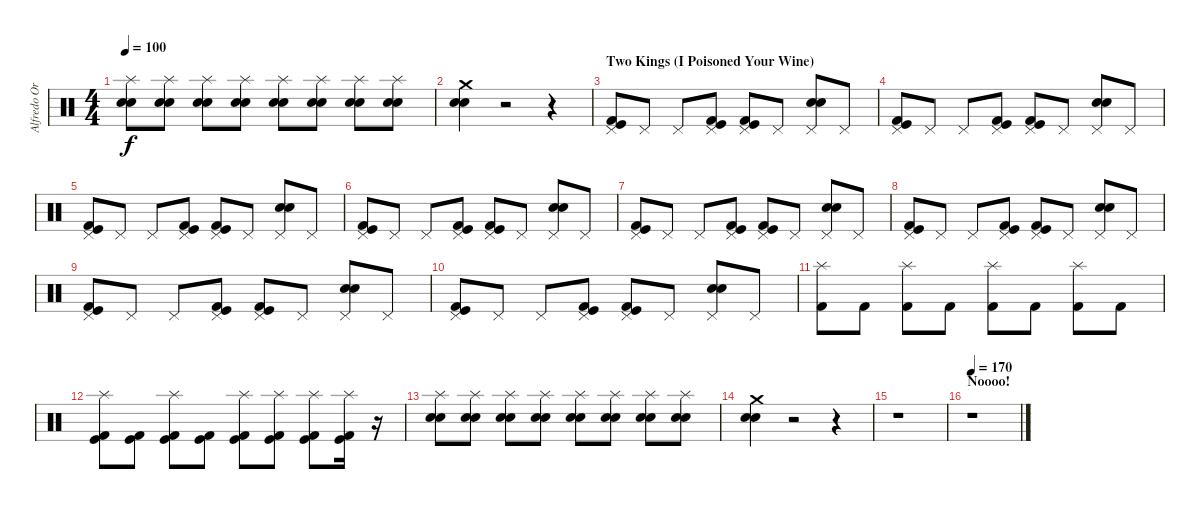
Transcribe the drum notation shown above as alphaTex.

\track ("Alfredo Ortiz (Drums)" "Alfredo Or") {instrument percussion}
\staff {score}
\articulation defaults
\ts (4 4)
\tempo 100
\clef neutral
\ks c
("Snare (hit) 2" "Electric Snare (hit)" "Splash (hit)").8{dy f volume 11} ("Snare (hit) 2" "Electric Snare (hit)" "Splash (hit)").8 ("Snare (hit) 2" "Electric Snare (hit)" "Splash (hit)").8 ("Snare (hit) 2" "Electric Snare (hit)" "Splash (hit)").8 ("Snare (hit) 2" "Electric Snare (hit)" "Splash (hit)").8 ("Snare (hit) 2" "Electric Snare (hit)" "Splash (hit)").8 ("Snare (hit) 2" "Electric Snare (hit)" "Splash (hit)").8 ("Snare (hit) 2" "Electric Snare (hit)" "Splash (hit)").8 |
("Snare (hit) 2" "Electric Snare (hit)" "Crash medium (hit)").4 r.2 r.4 |
\section ("" "Two Kings (I Poisoned Your Wine)")
("Kick (hit) 2" "Kick (hit)" "Pedal Hi-Hat (hit)").8 "Pedal Hi-Hat (hit)".8 "Pedal Hi-Hat (hit)".8 ("Kick (hit) 2" "Kick (hit)" "Pedal Hi-Hat (hit)").8 ("Kick (hit) 2" "Kick (hit)" "Pedal Hi-Hat (hit)").8 "Pedal Hi-Hat (hit)".8 ("Snare (hit) 2" "Electric Snare (hit)" "Pedal Hi-Hat (hit)").8 "Pedal Hi-Hat (hit)".8 |
("Kick (hit) 2" "Kick (hit)" "Pedal Hi-Hat (hit)").8 "Pedal Hi-Hat (hit)".8 "Pedal Hi-Hat (hit)".8 ("Kick (hit) 2" "Kick (hit)" "Pedal Hi-Hat (hit)").8 ("Kick (hit) 2" "Kick (hit)" "Pedal Hi-Hat (hit)").8 "Pedal Hi-Hat (hit)".8 ("Snare (hit) 2" "Electric Snare (hit)" "Pedal Hi-Hat (hit)").8 "Pedal Hi-Hat (hit)".8 |
("Kick (hit) 2" "Kick (hit)" "Pedal Hi-Hat (hit)").8 "Pedal Hi-Hat (hit)".8 "Pedal Hi-Hat (hit)".8 ("Kick (hit) 2" "Kick (hit)" "Pedal Hi-Hat (hit)").8 ("Kick (hit) 2" "Kick (hit)" "Pedal Hi-Hat (hit)").8 "Pedal Hi-Hat (hit)".8 ("Snare (hit) 2" "Electric Snare (hit)" "Pedal Hi-Hat (hit)").8 "Pedal Hi-Hat (hit)".8 |
("Kick (hit) 2" "Kick (hit)" "Pedal Hi-Hat (hit)").8 "Pedal Hi-Hat (hit)".8 "Pedal Hi-Hat (hit)".8 ("Kick (hit) 2" "Kick (hit)" "Pedal Hi-Hat (hit)").8 ("Kick (hit) 2" "Kick (hit)" "Pedal Hi-Hat (hit)").8 "Pedal Hi-Hat (hit)".8 ("Snare (hit) 2" "Electric Snare (hit)" "Pedal Hi-Hat (hit)").8 "Pedal Hi-Hat (hit)".8 |
("Kick (hit) 2" "Kick (hit)" "Pedal Hi-Hat (hit)").8 "Pedal Hi-Hat (hit)".8 "Pedal Hi-Hat (hit)".8 ("Kick (hit) 2" "Kick (hit)" "Pedal Hi-Hat (hit)").8 ("Kick (hit) 2" "Kick (hit)" "Pedal Hi-Hat (hit)").8 "Pedal Hi-Hat (hit)".8 ("Snare (hit) 2" "Electric Snare (hit)" "Pedal Hi-Hat (hit)").8 "Pedal Hi-Hat (hit)".8 |
("Kick (hit) 2" "Kick (hit)" "Pedal Hi-Hat (hit)").8 "Pedal Hi-Hat (hit)".8 "Pedal Hi-Hat (hit)".8 ("Kick (hit) 2" "Kick (hit)" "Pedal Hi-Hat (hit)").8 ("Kick (hit) 2" "Kick (hit)" "Pedal Hi-Hat (hit)").8 "Pedal Hi-Hat (hit)".8 ("Snare (hit) 2" "Electric Snare (hit)" "Pedal Hi-Hat (hit)").8 "Pedal Hi-Hat (hit)".8 |
("Kick (hit) 2" "Kick (hit)" "Pedal Hi-Hat (hit)").8 "Pedal Hi-Hat (hit)".8 "Pedal Hi-Hat (hit)".8 ("Kick (hit) 2" "Kick (hit)" "Pedal Hi-Hat (hit)").8 ("Kick (hit) 2" "Kick (hit)" "Pedal Hi-Hat (hit)").8 "Pedal Hi-Hat (hit)".8 ("Snare (hit) 2" "Electric Snare (hit)" "Pedal Hi-Hat (hit)").8 "Pedal Hi-Hat (hit)".8 |
("Kick (hit) 2" "Kick (hit)" "Pedal Hi-Hat (hit)").8 "Pedal Hi-Hat (hit)".8 "Pedal Hi-Hat (hit)".8 ("Kick (hit) 2" "Kick (hit)" "Pedal Hi-Hat (hit)").8 ("Kick (hit) 2" "Kick (hit)" "Pedal Hi-Hat (hit)").8 "Pedal Hi-Hat (hit)".8 ("Snare (hit) 2" "Electric Snare (hit)" "Pedal Hi-Hat (hit)").8 "Pedal Hi-Hat (hit)".8 |
("Kick (hit) 2" "Splash (hit)").8 "Kick (hit) 2".8 ("Kick (hit) 2" "Splash (hit)").8 "Kick (hit) 2".8 ("Kick (hit) 2" "Splash (hit)").8 "Kick (hit) 2".8 ("Kick (hit) 2" "Splash (hit)").8 "Kick (hit) 2".8 |
("Kick (hit) 2" "Kick (hit)" "Splash (hit)").8 ("Kick (hit) 2" "Kick (hit)").8 ("Kick (hit) 2" "Kick (hit)" "Splash (hit)").8 ("Kick (hit) 2" "Kick (hit)").8 ("Kick (hit) 2" "Kick (hit)" "Splash (hit)").8 ("Kick (hit) 2" "Kick (hit)" "Splash (hit)").8 ("Kick (hit) 2" "Kick (hit)" "Splash (hit)").8 ("Kick (hit) 2" "Kick (hit)" "Splash (hit)").16 r.16{volume 8} |
("Snare (hit) 2" "Electric Snare (hit)" "Splash (hit)").8{volume 11} ("Snare (hit) 2" "Electric Snare (hit)" "Splash (hit)").8 ("Snare (hit) 2" "Electric Snare (hit)" "Splash (hit)").8 ("Snare (hit) 2" "Electric Snare (hit)" "Splash (hit)").8 ("Snare (hit) 2" "Electric Snare (hit)" "Splash (hit)").8 ("Snare (hit) 2" "Electric Snare (hit)" "Splash (hit)").8 ("Snare (hit) 2" "Electric Snare (hit)" "Splash (hit)").8 ("Snare (hit) 2" "Electric Snare (hit)" "Splash (hit)").8 |
("Snare (hit) 2" "Electric Snare (hit)" "Crash medium (hit)").4 r.2 r.4 |
r.1 |
\section ("" "Noooo!")
\tempo 170
r.1
